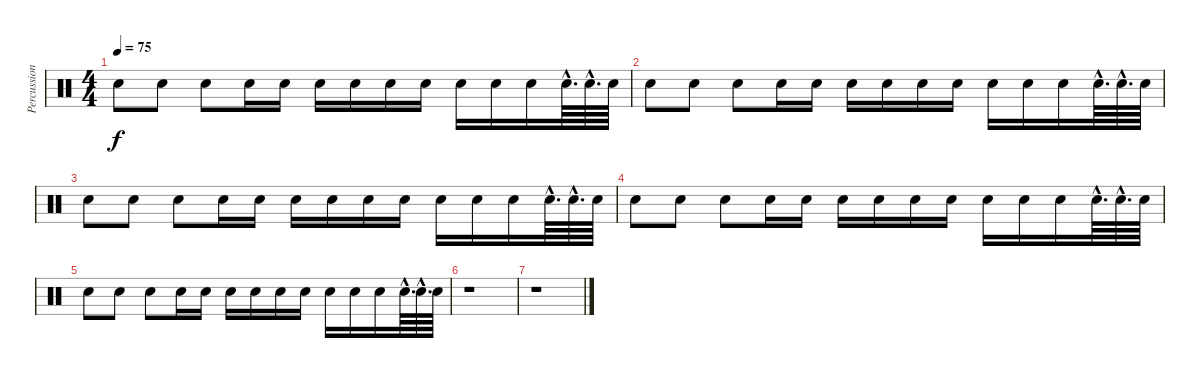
\track ("Percussion" "Percussion") {instrument percussion}
\staff {score}
\articulation defaults
\ts (4 4)
\tempo 75
\clef neutral
\ks c "Snare (hit) 2".8{dy f} "Snare (hit) 2".8 "Snare (hit) 2".8 "Snare (hit) 2".16 "Snare (hit) 2".16 "Snare (hit) 2".16 "Snare (hit) 2".16 "Snare (hit) 2".16 "Snare (hit) 2".16 "Snare (hit) 2".16 "Snare (hit) 2".16 "Snare (hit) 2".16 "Snare (hit) 2"{hac}.64{d} "Snare (hit) 2"{hac}.64{d} "Snare (hit) 2".64
|
"Snare (hit) 2".8 "Snare (hit) 2".8 "Snare (hit) 2".8 "Snare (hit) 2".16 "Snare (hit) 2".16 "Snare (hit) 2".16 "Snare (hit) 2".16 "Snare (hit) 2".16 "Snare (hit) 2".16 "Snare (hit) 2".16 "Snare (hit) 2".16 "Snare (hit) 2".16 "Snare (hit) 2"{hac}.64{d} "Snare (hit) 2"{hac}.64{d} "Snare (hit) 2".64 |
"Snare (hit) 2".8 "Snare (hit) 2".8 "Snare (hit) 2".8 "Snare (hit) 2".16 "Snare (hit) 2".16 "Snare (hit) 2".16 "Snare (hit) 2".16 "Snare (hit) 2".16 "Snare (hit) 2".16 "Snare (hit) 2".16 "Snare (hit) 2".16 "Snare (hit) 2".16 "Snare (hit) 2"{hac}.64{d} "Snare (hit) 2"{hac}.64{d} "Snare (hit) 2".64 |
"Snare (hit) 2".8 "Snare (hit) 2".8 "Snare (hit) 2".8 "Snare (hit) 2".16 "Snare (hit) 2".16 "Snare (hit) 2".16 "Snare (hit) 2".16 "Snare (hit) 2".16 "Snare (hit) 2".16 "Snare (hit) 2".16 "Snare (hit) 2".16 "Snare (hit) 2".16 "Snare (hit) 2"{hac}.64{d} "Snare (hit) 2"{hac}.64{d} "Snare (hit) 2".64 |
"Snare (hit) 2".8 "Snare (hit) 2".8 "Snare (hit) 2".8 "Snare (hit) 2".16 "Snare (hit) 2".16 "Snare (hit) 2".16 "Snare (hit) 2".16 "Snare (hit) 2".16 "Snare (hit) 2".16 "Snare (hit) 2".16 "Snare (hit) 2".16 "Snare (hit) 2".16 "Snare (hit) 2"{hac}.64{d} "Snare (hit) 2"{hac}.64{d} "Snare (hit) 2".64 |
r.1 |
r.1
